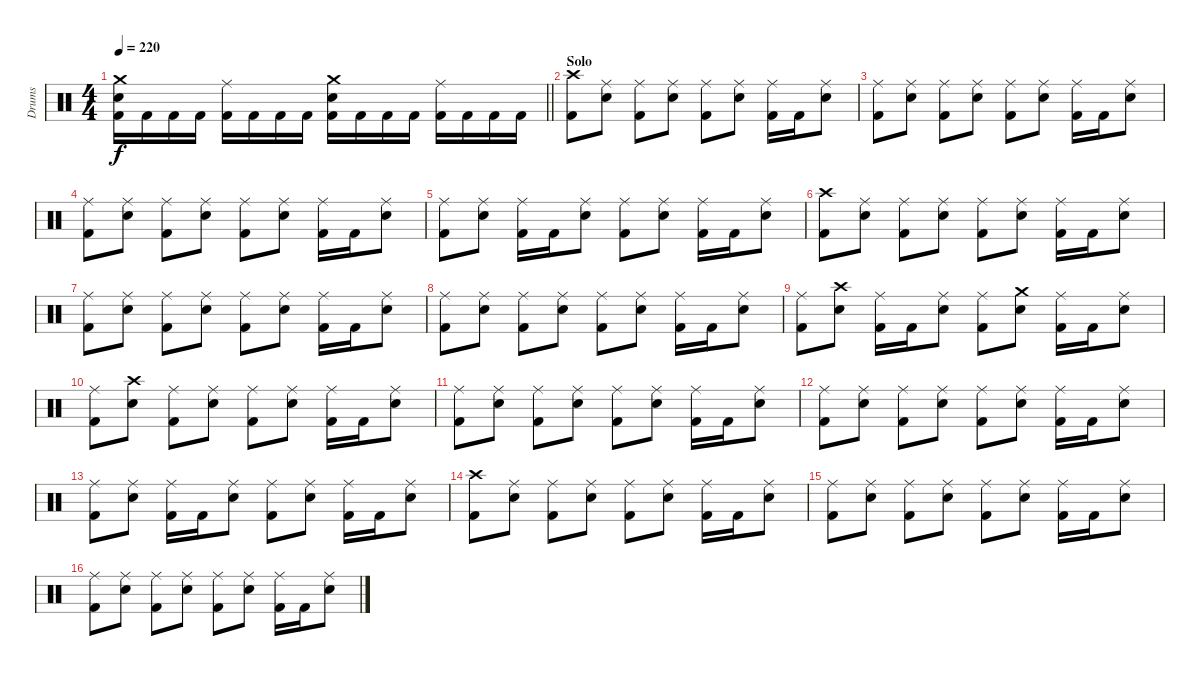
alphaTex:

\track ("Drums" "Drums") {instrument percussion}
\staff {score}
\articulation defaults
\ts (4 4)
\tempo 220
\clef neutral
\barLineRight lightlight
\ks c
("Crash medium (hit)" "Snare (hit) 2" "Kick (hit) 2").16{dy f} "Kick (hit) 2".16 "Kick (hit) 2".16 "Kick (hit) 2".16 ("Ride (middle)" "Kick (hit) 2").16 "Kick (hit) 2".16 "Kick (hit) 2".16 "Kick (hit) 2".16 ("Crash medium (hit)" "Snare (hit) 2" "Kick (hit) 2").16 "Kick (hit) 2".16 "Kick (hit) 2".16 "Kick (hit) 2".16 ("Ride (middle)" "Kick (hit) 2").16 "Kick (hit) 2".16 "Kick (hit) 2".16 "Kick (hit) 2".16 |
\section ("" "Solo")
("Crash high (hit)" "Kick (hit) 2").8 ("Ride (middle)" "Snare (hit) 2").8 ("Ride (middle)" "Kick (hit) 2").8 ("Ride (middle)" "Snare (hit) 2").8 ("Ride (middle)" "Kick (hit) 2").8 ("Ride (middle)" "Snare (hit) 2").8 ("Ride (middle)" "Kick (hit) 2").16 "Kick (hit) 2".16 ("Ride (middle)" "Snare (hit) 2").8 |
("Ride (middle)" "Kick (hit) 2").8 ("Ride (middle)" "Snare (hit) 2").8 ("Ride (middle)" "Kick (hit) 2").8 ("Ride (middle)" "Snare (hit) 2").8 ("Ride (middle)" "Kick (hit) 2").8 ("Ride (middle)" "Snare (hit) 2").8 ("Ride (middle)" "Kick (hit) 2").16 "Kick (hit) 2".16 ("Ride (middle)" "Snare (hit) 2").8 |
("Ride (middle)" "Kick (hit) 2").8 ("Ride (middle)" "Snare (hit) 2").8 ("Ride (middle)" "Kick (hit) 2").8 ("Ride (middle)" "Snare (hit) 2").8 ("Ride (middle)" "Kick (hit) 2").8 ("Ride (middle)" "Snare (hit) 2").8 ("Ride (middle)" "Kick (hit) 2").16 "Kick (hit) 2".16 ("Ride (middle)" "Snare (hit) 2").8 |
("Ride (middle)" "Kick (hit) 2").8 ("Ride (middle)" "Snare (hit) 2").8 ("Ride (middle)" "Kick (hit) 2").16 "Kick (hit) 2".16 ("Ride (middle)" "Snare (hit) 2").8 ("Ride (middle)" "Kick (hit) 2").8 ("Ride (middle)" "Snare (hit) 2").8 ("Ride (middle)" "Kick (hit) 2").16 "Kick (hit) 2".16 ("Ride (middle)" "Snare (hit) 2").8 |
("Crash high (hit)" "Kick (hit) 2").8 ("Ride (middle)" "Snare (hit) 2").8 ("Ride (middle)" "Kick (hit) 2").8 ("Ride (middle)" "Snare (hit) 2").8 ("Ride (middle)" "Kick (hit) 2").8 ("Ride (middle)" "Snare (hit) 2").8 ("Ride (middle)" "Kick (hit) 2").16 "Kick (hit) 2".16 ("Ride (middle)" "Snare (hit) 2").8 |
("Ride (middle)" "Kick (hit) 2").8 ("Ride (middle)" "Snare (hit) 2").8 ("Ride (middle)" "Kick (hit) 2").8 ("Ride (middle)" "Snare (hit) 2").8 ("Ride (middle)" "Kick (hit) 2").8 ("Ride (middle)" "Snare (hit) 2").8 ("Ride (middle)" "Kick (hit) 2").16 "Kick (hit) 2".16 ("Ride (middle)" "Snare (hit) 2").8 |
("Ride (middle)" "Kick (hit) 2").8 ("Ride (middle)" "Snare (hit) 2").8 ("Ride (middle)" "Kick (hit) 2").8 ("Ride (middle)" "Snare (hit) 2").8 ("Ride (middle)" "Kick (hit) 2").8 ("Ride (middle)" "Snare (hit) 2").8 ("Ride (middle)" "Kick (hit) 2").16 "Kick (hit) 2".16 ("Ride (middle)" "Snare (hit) 2").8 |
("Ride (middle)" "Kick (hit) 2").8 ("Crash high (hit)" "Snare (hit) 2").8 ("Ride (middle)" "Kick (hit) 2").16 "Kick (hit) 2".16 ("Ride (middle)" "Snare (hit) 2").8 ("Ride (middle)" "Kick (hit) 2").8 ("Crash medium (hit)" "Snare (hit) 2").8 ("Ride (middle)" "Kick (hit) 2").16 "Kick (hit) 2".16 ("Ride (middle)" "Snare (hit) 2").8 |
("Ride (middle)" "Kick (hit) 2").8 ("Crash high (hit)" "Snare (hit) 2").8 ("Ride (middle)" "Kick (hit) 2").8 ("Ride (middle)" "Snare (hit) 2").8 ("Ride (middle)" "Kick (hit) 2").8 ("Ride (middle)" "Snare (hit) 2").8 ("Ride (middle)" "Kick (hit) 2").16 "Kick (hit) 2".16 ("Ride (middle)" "Snare (hit) 2").8 |
("Ride (middle)" "Kick (hit) 2").8 ("Ride (middle)" "Snare (hit) 2").8 ("Ride (middle)" "Kick (hit) 2").8 ("Ride (middle)" "Snare (hit) 2").8 ("Ride (middle)" "Kick (hit) 2").8 ("Ride (middle)" "Snare (hit) 2").8 ("Ride (middle)" "Kick (hit) 2").16 "Kick (hit) 2".16 ("Ride (middle)" "Snare (hit) 2").8 |
("Ride (middle)" "Kick (hit) 2").8 ("Ride (middle)" "Snare (hit) 2").8 ("Ride (middle)" "Kick (hit) 2").8 ("Ride (middle)" "Snare (hit) 2").8 ("Ride (middle)" "Kick (hit) 2").8 ("Ride (middle)" "Snare (hit) 2").8 ("Ride (middle)" "Kick (hit) 2").16 "Kick (hit) 2".16 ("Ride (middle)" "Snare (hit) 2").8 |
("Ride (middle)" "Kick (hit) 2").8 ("Ride (middle)" "Snare (hit) 2").8 ("Ride (middle)" "Kick (hit) 2").16 "Kick (hit) 2".16 ("Ride (middle)" "Snare (hit) 2").8 ("Ride (middle)" "Kick (hit) 2").8 ("Ride (middle)" "Snare (hit) 2").8 ("Ride (middle)" "Kick (hit) 2").16 "Kick (hit) 2".16 ("Ride (middle)" "Snare (hit) 2").8 |
("Crash high (hit)" "Kick (hit) 2").8 ("Ride (middle)" "Snare (hit) 2").8 ("Ride (middle)" "Kick (hit) 2").8 ("Ride (middle)" "Snare (hit) 2").8 ("Ride (middle)" "Kick (hit) 2").8 ("Ride (middle)" "Snare (hit) 2").8 ("Ride (middle)" "Kick (hit) 2").16 "Kick (hit) 2".16 ("Ride (middle)" "Snare (hit) 2").8 |
("Ride (middle)" "Kick (hit) 2").8 ("Ride (middle)" "Snare (hit) 2").8 ("Ride (middle)" "Kick (hit) 2").8 ("Ride (middle)" "Snare (hit) 2").8 ("Ride (middle)" "Kick (hit) 2").8 ("Ride (middle)" "Snare (hit) 2").8 ("Ride (middle)" "Kick (hit) 2").16 "Kick (hit) 2".16 ("Ride (middle)" "Snare (hit) 2").8 |
("Ride (middle)" "Kick (hit) 2").8 ("Ride (middle)" "Snare (hit) 2").8 ("Ride (middle)" "Kick (hit) 2").8 ("Ride (middle)" "Snare (hit) 2").8 ("Ride (middle)" "Kick (hit) 2").8 ("Ride (middle)" "Snare (hit) 2").8 ("Ride (middle)" "Kick (hit) 2").16 "Kick (hit) 2".16 ("Ride (middle)" "Snare (hit) 2").8
